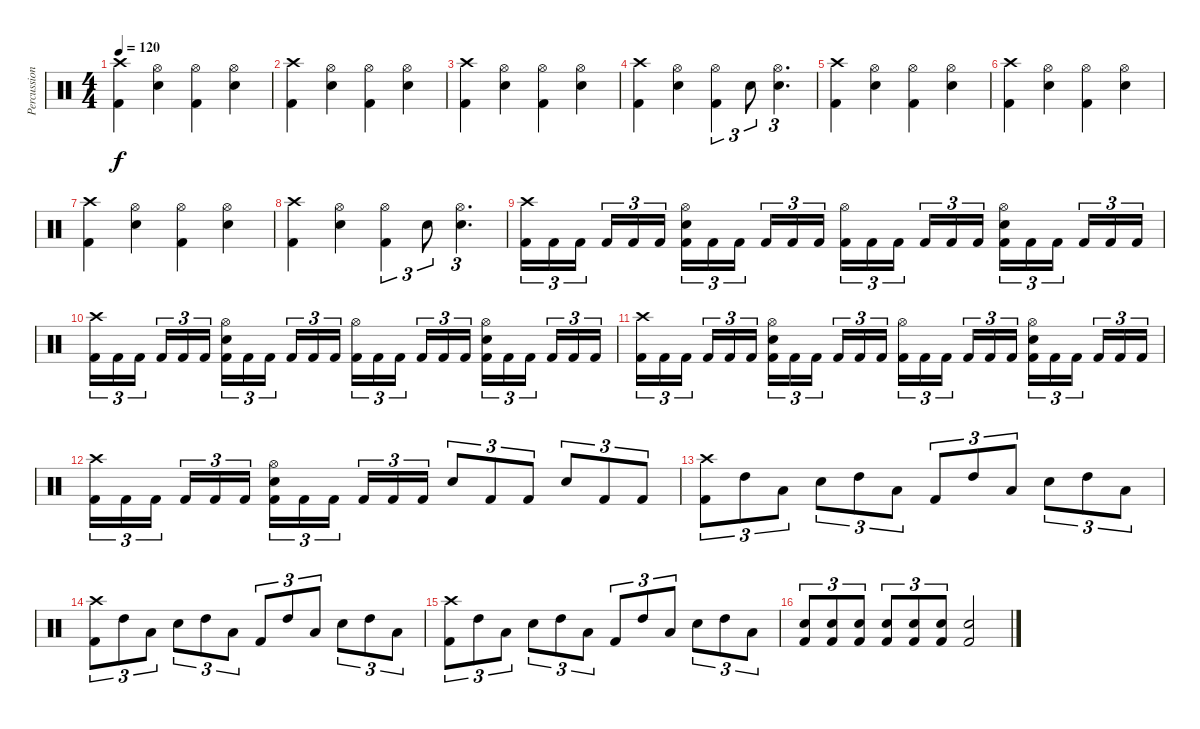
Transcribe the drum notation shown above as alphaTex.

\track ("Percussion" "Percussion") {instrument percussion}
\staff {score}
\articulation defaults
\ts (4 4)
\tempo 120
\clef neutral
\ks c
("Kick (hit) 2" "Crash high (hit)").4{dy f} ("Snare (hit) 2" "Hi-Hat (open)").4 ("Kick (hit) 2" "Hi-Hat (open)").4 ("Snare (hit) 2" "Hi-Hat (open)").4 |
("Kick (hit) 2" "Crash high (hit)").4 ("Snare (hit) 2" "Hi-Hat (open)").4 ("Kick (hit) 2" "Hi-Hat (open)").4 ("Snare (hit) 2" "Hi-Hat (open)").4 |
("Kick (hit) 2" "Crash high (hit)").4 ("Snare (hit) 2" "Hi-Hat (open)").4 ("Kick (hit) 2" "Hi-Hat (open)").4 ("Snare (hit) 2" "Hi-Hat (open)").4 |
("Kick (hit) 2" "Crash high (hit)").4 ("Snare (hit) 2" "Hi-Hat (open)").4 ("Kick (hit) 2" "Hi-Hat (open)").4{tu (3 2)} "Snare (hit) 2".8{tu (3 2)} ("Snare (hit) 2" "Hi-Hat (open)").4{d tu (3 2)} |
("Kick (hit) 2" "Crash high (hit)").4 ("Snare (hit)" "Hi-Hat (open)").4 ("Kick (hit) 2" "Hi-Hat (open)").4 ("Snare (hit) 2" "Hi-Hat (open)").4 |
("Kick (hit) 2" "Crash high (hit)").4 ("Snare (hit) 2" "Hi-Hat (open)").4 ("Kick (hit) 2" "Hi-Hat (open)").4 ("Snare (hit) 2" "Hi-Hat (open)").4 |
("Kick (hit) 2" "Crash high (hit)").4 ("Snare (hit) 2" "Hi-Hat (open)").4 ("Kick (hit) 2" "Hi-Hat (open)").4 ("Snare (hit) 2" "Hi-Hat (open)").4 |
("Kick (hit) 2" "Crash high (hit)").4 ("Snare (hit) 2" "Hi-Hat (open)").4 ("Kick (hit) 2" "Hi-Hat (open)").4{tu (3 2)} "Snare (hit) 2".8{tu (3 2)} ("Snare (hit) 2" "Hi-Hat (open)").4{d tu (3 2)} |
("Kick (hit) 2" "Crash high (hit)").16{tu (3 2)} "Kick (hit) 2".16{tu (3 2)} "Kick (hit) 2".16{tu (3 2) beam splitsecondary} "Kick (hit) 2".16{tu (3 2)} "Kick (hit) 2".16{tu (3 2)} "Kick (hit) 2".16{tu (3 2)} ("Kick (hit) 2" "Snare (hit) 2" "Hi-Hat (open)").16{tu (3 2)} "Kick (hit) 2".16{tu (3 2)} "Kick (hit) 2".16{tu (3 2) beam splitsecondary} "Kick (hit) 2".16{tu (3 2)} "Kick (hit) 2".16{tu (3 2)} "Kick (hit) 2".16{tu (3 2)} ("Kick (hit) 2" "Hi-Hat (open)").16{tu (3 2)} "Kick (hit) 2".16{tu (3 2)} "Kick (hit) 2".16{tu (3 2) beam splitsecondary} "Kick (hit) 2".16{tu (3 2)} "Kick (hit) 2".16{tu (3 2)} "Kick (hit) 2".16{tu (3 2)} ("Kick (hit) 2" "Snare (hit) 2" "Hi-Hat (open)").16{tu (3 2)} "Kick (hit) 2".16{tu (3 2)} "Kick (hit) 2".16{tu (3 2) beam splitsecondary} "Kick (hit) 2".16{tu (3 2)} "Kick (hit) 2".16{tu (3 2)} "Kick (hit) 2".16{tu (3 2)} |
("Kick (hit) 2" "Crash high (hit)").16{tu (3 2)} "Kick (hit) 2".16{tu (3 2)} "Kick (hit) 2".16{tu (3 2) beam splitsecondary} "Kick (hit) 2".16{tu (3 2)} "Kick (hit) 2".16{tu (3 2)} "Kick (hit) 2".16{tu (3 2)} ("Kick (hit) 2" "Snare (hit) 2" "Hi-Hat (open)").16{tu (3 2)} "Kick (hit) 2".16{tu (3 2)} "Kick (hit) 2".16{tu (3 2) beam splitsecondary} "Kick (hit) 2".16{tu (3 2)} "Kick (hit) 2".16{tu (3 2)} "Kick (hit) 2".16{tu (3 2)} ("Kick (hit) 2" "Hi-Hat (open)").16{tu (3 2)} "Kick (hit) 2".16{tu (3 2)} "Kick (hit) 2".16{tu (3 2) beam splitsecondary} "Kick (hit) 2".16{tu (3 2)} "Kick (hit) 2".16{tu (3 2)} "Kick (hit) 2".16{tu (3 2)} ("Kick (hit) 2" "Snare (hit) 2" "Hi-Hat (open)").16{tu (3 2)} "Kick (hit) 2".16{tu (3 2)} "Kick (hit) 2".16{tu (3 2) beam splitsecondary} "Kick (hit) 2".16{tu (3 2)} "Kick (hit) 2".16{tu (3 2)} "Kick (hit) 2".16{tu (3 2)} |
("Kick (hit) 2" "Crash high (hit)").16{tu (3 2)} "Kick (hit) 2".16{tu (3 2)} "Kick (hit) 2".16{tu (3 2) beam splitsecondary} "Kick (hit) 2".16{tu (3 2)} "Kick (hit) 2".16{tu (3 2)} "Kick (hit) 2".16{tu (3 2)} ("Kick (hit) 2" "Snare (hit) 2" "Hi-Hat (open)").16{tu (3 2)} "Kick (hit) 2".16{tu (3 2)} "Kick (hit) 2".16{tu (3 2) beam splitsecondary} "Kick (hit) 2".16{tu (3 2)} "Kick (hit) 2".16{tu (3 2)} "Kick (hit) 2".16{tu (3 2)} ("Kick (hit) 2" "Hi-Hat (open)").16{tu (3 2)} "Kick (hit) 2".16{tu (3 2)} "Kick (hit) 2".16{tu (3 2) beam splitsecondary} "Kick (hit) 2".16{tu (3 2)} "Kick (hit) 2".16{tu (3 2)} "Kick (hit) 2".16{tu (3 2)} ("Kick (hit) 2" "Snare (hit) 2" "Hi-Hat (open)").16{tu (3 2)} "Kick (hit) 2".16{tu (3 2)} "Kick (hit) 2".16{tu (3 2) beam splitsecondary} "Kick (hit) 2".16{tu (3 2)} "Kick (hit) 2".16{tu (3 2)} "Kick (hit) 2".16{tu (3 2)} |
("Kick (hit) 2" "Crash high (hit)").16{tu (3 2)} "Kick (hit) 2".16{tu (3 2)} "Kick (hit) 2".16{tu (3 2) beam splitsecondary} "Kick (hit) 2".16{tu (3 2)} "Kick (hit) 2".16{tu (3 2)} "Kick (hit) 2".16{tu (3 2)} ("Kick (hit) 2" "Snare (hit) 2" "Hi-Hat (open)").16{tu (3 2)} "Kick (hit) 2".16{tu (3 2)} "Kick (hit) 2".16{tu (3 2) beam splitsecondary} "Kick (hit) 2".16{tu (3 2)} "Kick (hit) 2".16{tu (3 2)} "Kick (hit) 2".16{tu (3 2)} "Snare (hit) 2".8{tu (3 2)} "Kick (hit) 2".8{tu (3 2)} "Kick (hit) 2".8{tu (3 2)} "Snare (hit) 2".8{tu (3 2)} "Kick (hit) 2".8{tu (3 2)} "Kick (hit) 2".8{tu (3 2)} |
("Kick (hit) 2" "Crash high (hit)").8{tu (3 2)} "High Tom (hit)".8{tu (3 2)} "Low Tom (hit)".8{tu (3 2)} "Snare (hit) 2".8{tu (3 2)} "High Tom (hit)".8{tu (3 2)} "Low Tom (hit)".8{tu (3 2)} "Kick (hit) 2".8{tu (3 2)} "High Tom (hit)".8{tu (3 2)} "Low Tom (hit)".8{tu (3 2)} "Snare (hit) 2".8{tu (3 2)} "High Tom (hit)".8{tu (3 2)} "Low Tom (hit)".8{tu (3 2)} |
("Kick (hit) 2" "Crash high (hit)").8{tu (3 2)} "High Tom (hit)".8{tu (3 2)} "Low Tom (hit)".8{tu (3 2)} "Snare (hit) 2".8{tu (3 2)} "High Tom (hit)".8{tu (3 2)} "Low Tom (hit)".8{tu (3 2)} "Kick (hit) 2".8{tu (3 2)} "High Tom (hit)".8{tu (3 2)} "Low Tom (hit)".8{tu (3 2)} "Snare (hit) 2".8{tu (3 2)} "High Tom (hit)".8{tu (3 2)} "Low Tom (hit)".8{tu (3 2)} |
("Kick (hit) 2" "Crash high (hit)").8{tu (3 2)} "High Tom (hit)".8{tu (3 2)} "Low Tom (hit)".8{tu (3 2)} "Snare (hit) 2".8{tu (3 2)} "High Tom (hit)".8{tu (3 2)} "Low Tom (hit)".8{tu (3 2)} "Kick (hit) 2".8{tu (3 2)} "High Tom (hit)".8{tu (3 2)} "Low Tom (hit)".8{tu (3 2)} "Snare (hit) 2".8{tu (3 2)} "High Tom (hit)".8{tu (3 2)} "Low Tom (hit)".8{tu (3 2)} |
("Kick (hit) 2" "Snare (hit) 2").8{tu (3 2)} ("Kick (hit) 2" "Snare (hit) 2").8{tu (3 2)} ("Kick (hit) 2" "Snare (hit) 2").8{tu (3 2)} ("Kick (hit) 2" "Snare (hit) 2").8{tu (3 2)} ("Kick (hit) 2" "Snare (hit) 2").8{tu (3 2)} ("Kick (hit) 2" "Snare (hit) 2").8{tu (3 2)} ("Kick (hit) 2" "Snare (hit) 2").2
